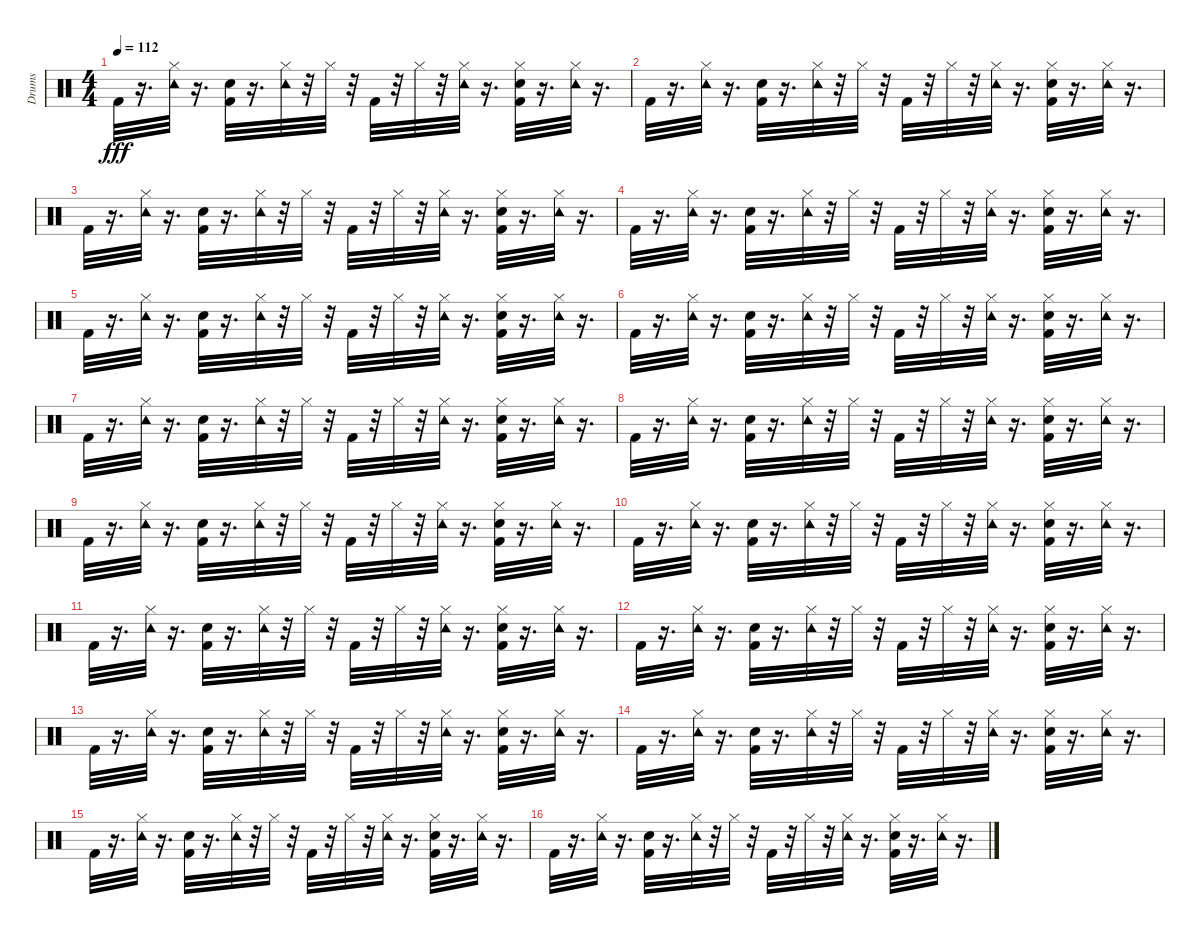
\track ("Drums" "Drums") {instrument percussion}
\staff {score}
\articulation defaults
\ts (4 4)
\tempo 112
\clef neutral
\ks c "Kick (hit) 2".32{dy fff volume 16}
r.16{d} ("Tambourine (hit)" "Hi-Hat (closed)").32 r.16{d} ("Snare (hit) 2" "Kick (hit) 2").32 r.16{d} ("Tambourine (hit)" "Hi-Hat (closed)").32 r.32 "Hi-Hat (closed)".32 r.32 "Kick (hit) 2".32 r.32 "Hi-Hat (closed)".32 r.32 ("Tambourine (hit)" "Hi-Hat (closed)").32 r.16{d} ("Snare (hit) 2" "Hi-Hat (closed)" "Kick (hit) 2").32 r.16{d} ("Tambourine (hit)" "Hi-Hat (closed)").32 r.16{d} |
"Kick (hit) 2".32 r.16{d} ("Tambourine (hit)" "Hi-Hat (closed)").32 r.16{d} ("Snare (hit) 2" "Kick (hit) 2").32 r.16{d} ("Tambourine (hit)" "Hi-Hat (closed)").32 r.32 "Hi-Hat (closed)".32 r.32 "Kick (hit) 2".32 r.32 "Hi-Hat (closed)".32 r.32 ("Tambourine (hit)" "Hi-Hat (closed)").32 r.16{d} ("Snare (hit) 2" "Hi-Hat (closed)" "Kick (hit) 2").32 r.16{d} ("Tambourine (hit)" "Hi-Hat (closed)").32 r.16{d} |
"Kick (hit) 2".32 r.16{d} ("Tambourine (hit)" "Hi-Hat (closed)").32 r.16{d} ("Snare (hit) 2" "Kick (hit) 2").32 r.16{d} ("Tambourine (hit)" "Hi-Hat (closed)").32 r.32 "Hi-Hat (closed)".32 r.32 "Kick (hit) 2".32 r.32 "Hi-Hat (closed)".32 r.32 ("Tambourine (hit)" "Hi-Hat (closed)").32 r.16{d} ("Snare (hit) 2" "Hi-Hat (closed)" "Kick (hit) 2").32 r.16{d} ("Tambourine (hit)" "Hi-Hat (closed)").32 r.16{d} |
"Kick (hit) 2".32 r.16{d} ("Tambourine (hit)" "Hi-Hat (closed)").32 r.16{d} ("Snare (hit) 2" "Kick (hit) 2").32 r.16{d} ("Tambourine (hit)" "Hi-Hat (closed)").32 r.32 "Hi-Hat (closed)".32 r.32 "Kick (hit) 2".32 r.32 "Hi-Hat (closed)".32 r.32 ("Tambourine (hit)" "Hi-Hat (closed)").32 r.16{d} ("Snare (hit) 2" "Hi-Hat (closed)" "Kick (hit) 2").32 r.16{d} ("Tambourine (hit)" "Hi-Hat (closed)").32 r.16{d} |
"Kick (hit) 2".32 r.16{d} ("Tambourine (hit)" "Hi-Hat (closed)").32 r.16{d} ("Snare (hit) 2" "Kick (hit) 2").32 r.16{d} ("Tambourine (hit)" "Hi-Hat (closed)").32 r.32 "Hi-Hat (closed)".32 r.32 "Kick (hit) 2".32 r.32 "Hi-Hat (closed)".32 r.32 ("Tambourine (hit)" "Hi-Hat (closed)").32 r.16{d} ("Snare (hit) 2" "Hi-Hat (closed)" "Kick (hit) 2").32 r.16{d} ("Tambourine (hit)" "Hi-Hat (closed)").32 r.16{d} |
"Kick (hit) 2".32 r.16{d} ("Tambourine (hit)" "Hi-Hat (closed)").32 r.16{d} ("Snare (hit) 2" "Kick (hit) 2").32 r.16{d} ("Tambourine (hit)" "Hi-Hat (closed)").32 r.32 "Hi-Hat (closed)".32 r.32 "Kick (hit) 2".32 r.32 "Hi-Hat (closed)".32 r.32 ("Tambourine (hit)" "Hi-Hat (closed)").32 r.16{d} ("Snare (hit) 2" "Hi-Hat (closed)" "Kick (hit) 2").32 r.16{d} ("Tambourine (hit)" "Hi-Hat (closed)").32 r.16{d} |
"Kick (hit) 2".32 r.16{d} ("Tambourine (hit)" "Hi-Hat (closed)").32 r.16{d} ("Snare (hit) 2" "Kick (hit) 2").32 r.16{d} ("Tambourine (hit)" "Hi-Hat (closed)").32 r.32 "Hi-Hat (closed)".32 r.32 "Kick (hit) 2".32 r.32 "Hi-Hat (closed)".32 r.32 ("Tambourine (hit)" "Hi-Hat (closed)").32 r.16{d} ("Snare (hit) 2" "Hi-Hat (closed)" "Kick (hit) 2").32 r.16{d} ("Tambourine (hit)" "Hi-Hat (closed)").32 r.16{d} |
"Kick (hit) 2".32 r.16{d} ("Tambourine (hit)" "Hi-Hat (closed)").32 r.16{d} ("Snare (hit) 2" "Kick (hit) 2").32 r.16{d} ("Tambourine (hit)" "Hi-Hat (closed)").32 r.32 "Hi-Hat (closed)".32 r.32 "Kick (hit) 2".32 r.32 "Hi-Hat (closed)".32 r.32 ("Tambourine (hit)" "Hi-Hat (closed)").32 r.16{d} ("Snare (hit) 2" "Hi-Hat (closed)" "Kick (hit) 2").32 r.16{d} ("Tambourine (hit)" "Hi-Hat (closed)").32 r.16{d} |
"Kick (hit) 2".32{volume 16} r.16{d} ("Tambourine (hit)" "Hi-Hat (closed)").32 r.16{d} ("Snare (hit) 2" "Kick (hit) 2").32 r.16{d} ("Tambourine (hit)" "Hi-Hat (closed)").32 r.32 "Hi-Hat (closed)".32 r.32 "Kick (hit) 2".32 r.32 "Hi-Hat (closed)".32 r.32 ("Tambourine (hit)" "Hi-Hat (closed)").32 r.16{d} ("Snare (hit) 2" "Hi-Hat (closed)" "Kick (hit) 2").32 r.16{d} ("Tambourine (hit)" "Hi-Hat (closed)").32 r.16{d} |
"Kick (hit) 2".32 r.16{d} ("Tambourine (hit)" "Hi-Hat (closed)").32 r.16{d} ("Snare (hit) 2" "Kick (hit) 2").32 r.16{d} ("Tambourine (hit)" "Hi-Hat (closed)").32 r.32 "Hi-Hat (closed)".32 r.32 "Kick (hit) 2".32 r.32 "Hi-Hat (closed)".32 r.32 ("Tambourine (hit)" "Hi-Hat (closed)").32 r.16{d} ("Snare (hit) 2" "Hi-Hat (closed)" "Kick (hit) 2").32 r.16{d} ("Tambourine (hit)" "Hi-Hat (closed)").32 r.16{d} |
"Kick (hit) 2".32 r.16{d} ("Tambourine (hit)" "Hi-Hat (closed)").32 r.16{d} ("Snare (hit) 2" "Kick (hit) 2").32 r.16{d} ("Tambourine (hit)" "Hi-Hat (closed)").32 r.32 "Hi-Hat (closed)".32 r.32 "Kick (hit) 2".32 r.32 "Hi-Hat (closed)".32 r.32 ("Tambourine (hit)" "Hi-Hat (closed)").32 r.16{d} ("Snare (hit) 2" "Hi-Hat (closed)" "Kick (hit) 2").32 r.16{d} ("Tambourine (hit)" "Hi-Hat (closed)").32 r.16{d} |
"Kick (hit) 2".32 r.16{d} ("Tambourine (hit)" "Hi-Hat (closed)").32 r.16{d} ("Snare (hit) 2" "Kick (hit) 2").32 r.16{d} ("Tambourine (hit)" "Hi-Hat (closed)").32 r.32 "Hi-Hat (closed)".32 r.32 "Kick (hit) 2".32 r.32 "Hi-Hat (closed)".32 r.32 ("Tambourine (hit)" "Hi-Hat (closed)").32 r.16{d} ("Snare (hit) 2" "Hi-Hat (closed)" "Kick (hit) 2").32 r.16{d} ("Tambourine (hit)" "Hi-Hat (closed)").32 r.16{d} |
"Kick (hit) 2".32 r.16{d} ("Tambourine (hit)" "Hi-Hat (closed)").32 r.16{d} ("Snare (hit) 2" "Kick (hit) 2").32 r.16{d} ("Tambourine (hit)" "Hi-Hat (closed)").32 r.32 "Hi-Hat (closed)".32 r.32 "Kick (hit) 2".32 r.32 "Hi-Hat (closed)".32 r.32 ("Tambourine (hit)" "Hi-Hat (closed)").32 r.16{d} ("Snare (hit) 2" "Hi-Hat (closed)" "Kick (hit) 2").32 r.16{d} ("Tambourine (hit)" "Hi-Hat (closed)").32 r.16{d} |
"Kick (hit) 2".32 r.16{d} ("Tambourine (hit)" "Hi-Hat (closed)").32 r.16{d} ("Snare (hit) 2" "Kick (hit) 2").32 r.16{d} ("Tambourine (hit)" "Hi-Hat (closed)").32 r.32 "Hi-Hat (closed)".32 r.32 "Kick (hit) 2".32 r.32 "Hi-Hat (closed)".32 r.32 ("Tambourine (hit)" "Hi-Hat (closed)").32 r.16{d} ("Snare (hit) 2" "Hi-Hat (closed)" "Kick (hit) 2").32 r.16{d} ("Tambourine (hit)" "Hi-Hat (closed)").32 r.16{d} |
"Kick (hit) 2".32 r.16{d} ("Tambourine (hit)" "Hi-Hat (closed)").32 r.16{d} ("Snare (hit) 2" "Kick (hit) 2").32 r.16{d} ("Tambourine (hit)" "Hi-Hat (closed)").32 r.32 "Hi-Hat (closed)".32 r.32 "Kick (hit) 2".32 r.32 "Hi-Hat (closed)".32 r.32 ("Tambourine (hit)" "Hi-Hat (closed)").32 r.16{d} ("Snare (hit) 2" "Hi-Hat (closed)" "Kick (hit) 2").32 r.16{d} ("Tambourine (hit)" "Hi-Hat (closed)").32 r.16{d} |
"Kick (hit) 2".32 r.16{d} ("Tambourine (hit)" "Hi-Hat (closed)").32 r.16{d} ("Snare (hit) 2" "Kick (hit) 2").32 r.16{d} ("Tambourine (hit)" "Hi-Hat (closed)").32 r.32 "Hi-Hat (closed)".32 r.32 "Kick (hit) 2".32 r.32 "Hi-Hat (closed)".32 r.32 ("Tambourine (hit)" "Hi-Hat (closed)").32 r.16{d} ("Snare (hit) 2" "Hi-Hat (closed)" "Kick (hit) 2").32 r.16{d} ("Tambourine (hit)" "Hi-Hat (closed)").32 r.16{d}
